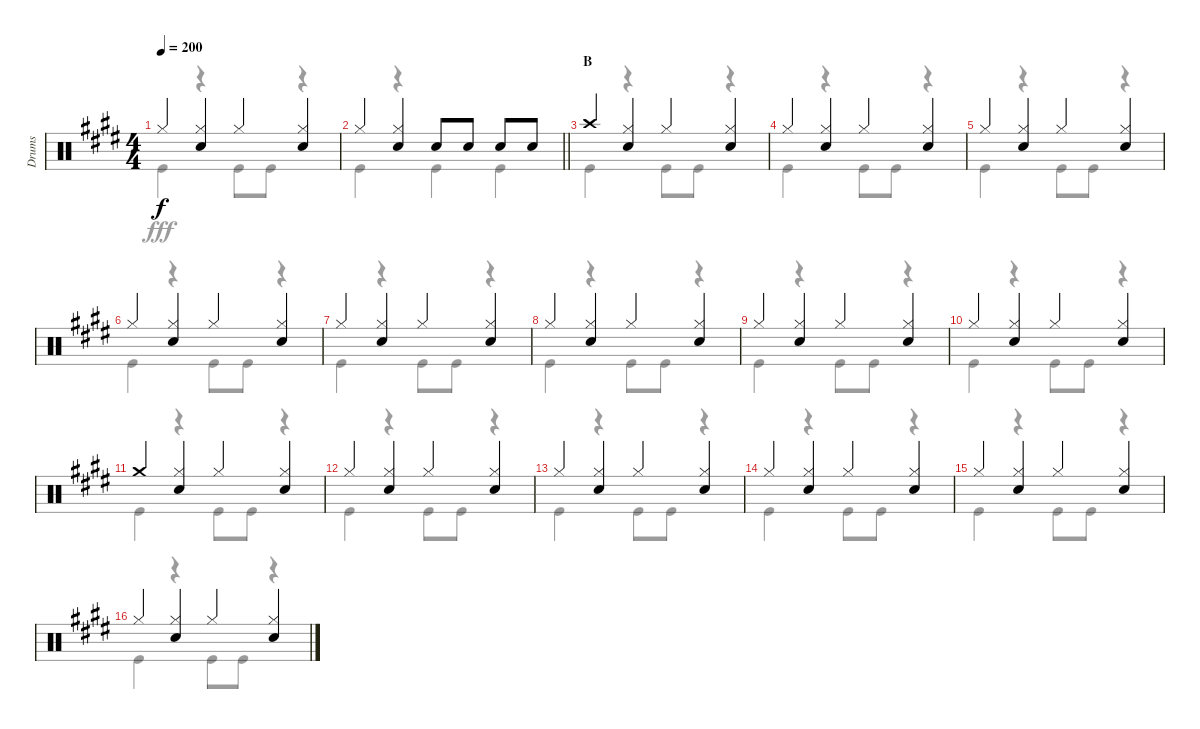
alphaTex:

\track ("Drums" "Drums") {instrument percussion}
\staff {score}
\articulation defaults
\voice
\ts (4 4)
\tempo 200
\clef neutral
\ks e "Hi-Hat (closed)".4{dy f}
("Hi-Hat (closed)" "Snare (hit) 2").4 "Hi-Hat (closed)".4 ("Hi-Hat (closed)" "Snare (hit) 2").4 |
\barLineRight lightlight "Hi-Hat (closed)".4
("Hi-Hat (closed)" "Snare (hit) 2").4 "Snare (hit) 2".8 "Snare (hit) 2".8 "Snare (hit) 2".8 "Snare (hit) 2".8 |
\section ("" "B")
"Crash high (hit)".4 ("Hi-Hat (closed)" "Snare (hit) 2").4 "Hi-Hat (closed)".4 ("Hi-Hat (closed)" "Snare (hit) 2").4 |
"Hi-Hat (closed)".4 ("Hi-Hat (closed)" "Snare (hit) 2").4 "Hi-Hat (closed)".4 ("Hi-Hat (closed)" "Snare (hit) 2").4 |
"Hi-Hat (closed)".4 ("Hi-Hat (closed)" "Snare (hit) 2").4 "Hi-Hat (closed)".4 ("Hi-Hat (closed)" "Snare (hit) 2").4 |
"Hi-Hat (closed)".4 ("Hi-Hat (closed)" "Snare (hit) 2").4 "Hi-Hat (closed)".4 ("Hi-Hat (closed)" "Snare (hit) 2").4 |
"Hi-Hat (closed)".4 ("Hi-Hat (closed)" "Snare (hit) 2").4 "Hi-Hat (closed)".4 ("Hi-Hat (closed)" "Snare (hit) 2").4 |
"Hi-Hat (closed)".4 ("Hi-Hat (closed)" "Snare (hit) 2").4 "Hi-Hat (closed)".4 ("Hi-Hat (closed)" "Snare (hit) 2").4 |
"Hi-Hat (closed)".4 ("Hi-Hat (closed)" "Snare (hit) 2").4 "Hi-Hat (closed)".4 ("Hi-Hat (closed)" "Snare (hit) 2").4 |
"Hi-Hat (closed)".4 ("Hi-Hat (closed)" "Snare (hit) 2").4 "Hi-Hat (closed)".4 ("Hi-Hat (closed)" "Snare (hit) 2").4 |
"Crash medium (hit)".4 ("Hi-Hat (closed)" "Snare (hit) 2").4 "Hi-Hat (closed)".4 ("Hi-Hat (closed)" "Snare (hit) 2").4 |
"Hi-Hat (closed)".4 ("Hi-Hat (closed)" "Snare (hit) 2").4 "Hi-Hat (closed)".4 ("Hi-Hat (closed)" "Snare (hit) 2").4 |
"Hi-Hat (closed)".4 ("Hi-Hat (closed)" "Snare (hit) 2").4 "Hi-Hat (closed)".4 ("Hi-Hat (closed)" "Snare (hit) 2").4 |
"Hi-Hat (closed)".4 ("Hi-Hat (closed)" "Snare (hit) 2").4 "Hi-Hat (closed)".4 ("Hi-Hat (closed)" "Snare (hit) 2").4 |
"Hi-Hat (closed)".4 ("Hi-Hat (closed)" "Snare (hit) 2").4 "Hi-Hat (closed)".4 ("Hi-Hat (closed)" "Snare (hit) 2").4 |
"Hi-Hat (closed)".4 ("Hi-Hat (closed)" "Snare (hit) 2").4 "Hi-Hat (closed)".4 ("Hi-Hat (closed)" "Snare (hit) 2").4
\voice
\clef neutral
\ottava regular
\simile none
\ks e "Kick (hit)".4{dy fff}
r.4 "Kick (hit)".8 "Kick (hit)".8 r.4 |
\barLineRight lightlight "Kick (hit)".4
r.4 "Kick (hit)".4 "Kick (hit)".4 |
"Kick (hit)".4 r.4 "Kick (hit)".8 "Kick (hit)".8 r.4 |
"Kick (hit)".4 r.4 "Kick (hit)".8 "Kick (hit)".8 r.4 |
"Kick (hit)".4 r.4 "Kick (hit)".8 "Kick (hit)".8 r.4 |
"Kick (hit)".4 r.4 "Kick (hit)".8 "Kick (hit)".8 r.4 |
"Kick (hit)".4 r.4 "Kick (hit)".8 "Kick (hit)".8 r.4 |
"Kick (hit)".4 r.4 "Kick (hit)".8 "Kick (hit)".8 r.4 |
"Kick (hit)".4 r.4 "Kick (hit)".8 "Kick (hit)".8 r.4 |
"Kick (hit)".4 r.4 "Kick (hit)".8 "Kick (hit)".8 r.4 |
"Kick (hit)".4 r.4 "Kick (hit)".8 "Kick (hit)".8 r.4 |
"Kick (hit)".4 r.4 "Kick (hit)".8 "Kick (hit)".8 r.4 |
"Kick (hit)".4 r.4 "Kick (hit)".8 "Kick (hit)".8 r.4 |
"Kick (hit)".4 r.4 "Kick (hit)".8 "Kick (hit)".8 r.4 |
"Kick (hit)".4 r.4 "Kick (hit)".8 "Kick (hit)".8 r.4 |
"Kick (hit)".4 r.4 "Kick (hit)".8 "Kick (hit)".8 r.4
